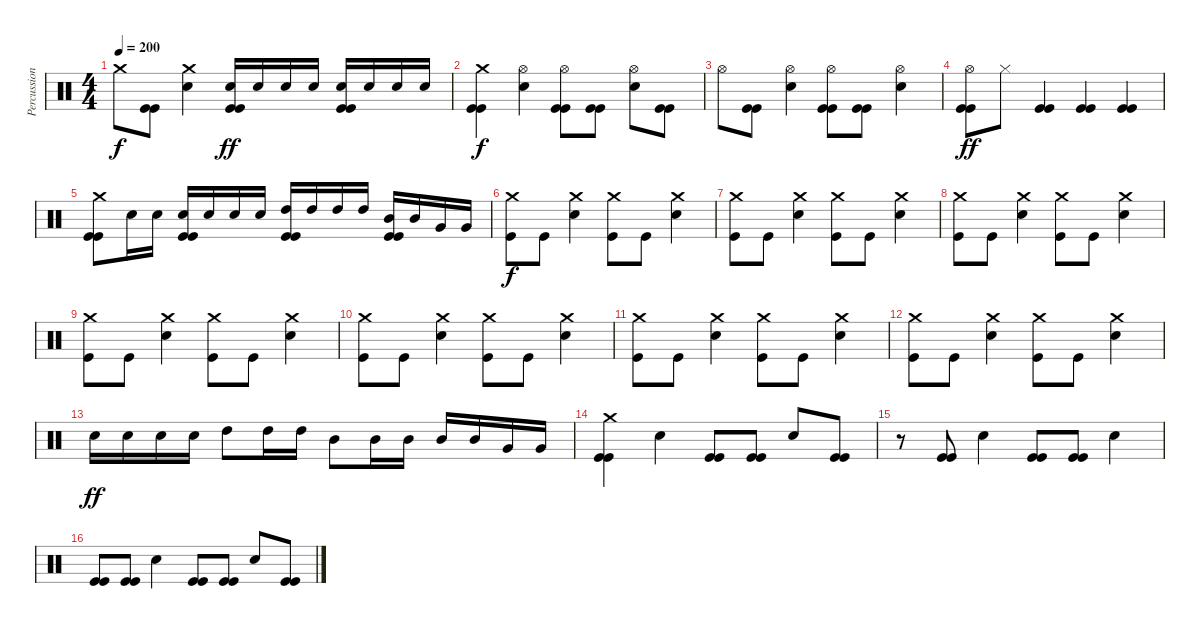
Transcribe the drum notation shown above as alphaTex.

\track ("Percussion" "Percussion") {instrument percussion}
\staff {score}
\articulation defaults
\ts (4 4)
\tempo 200
\clef neutral
\ks c "Crash medium (hit)".8{dy f}
("Kick (hit)" "Kick (hit)").8 ("Crash medium (hit)" "Snare (hit) 2").4 ("Snare (hit) 2" "Kick (hit)" "Kick (hit)").16{dy ff} "Snare (hit) 2".16 "Snare (hit) 2".16 "Snare (hit) 2".16 ("Snare (hit) 2" "Kick (hit)" "Kick (hit)").16 "Snare (hit) 2".16 "Snare (hit) 2".16 "Snare (hit) 2".16 |
("Crash medium (hit)" "Kick (hit)" "Kick (hit)").4{dy f} ("Hi-Hat (open)" "Snare (hit) 2").4 ("Hi-Hat (open)" "Kick (hit)" "Kick (hit)").8 ("Kick (hit)" "Kick (hit)").8 ("Hi-Hat (open)" "Snare (hit) 2").8 ("Kick (hit)" "Kick (hit)").8 |
"Hi-Hat (open)".8 ("Kick (hit)" "Kick (hit)").8 ("Hi-Hat (open)" "Snare (hit) 2").4 ("Hi-Hat (open)" "Kick (hit)" "Kick (hit)").8 ("Kick (hit)" "Kick (hit)").8 ("Hi-Hat (open)" "Snare (hit) 2").4 |
("Hi-Hat (open)" "Kick (hit)" "Kick (hit)").8{dy ff} "Hi-Hat (closed)".8 ("Kick (hit)" "Kick (hit)").4 ("Kick (hit)" "Kick (hit)").4 ("Kick (hit)" "Kick (hit)").4 |
("Crash medium (hit)" "Kick (hit)" "Kick (hit)").8 "Snare (hit) 2".16 "Snare (hit) 2".16 ("Snare (hit) 2" "Kick (hit)" "Kick (hit)").16 "Snare (hit) 2".16 "Snare (hit) 2".16 "Snare (hit) 2".16 ("High Tom (hit)" "Kick (hit)" "Kick (hit)").16 "High Tom (hit)".16 "High Tom (hit)".16 "High Tom (hit)".16 ("Mid Tom (hit)" "Kick (hit)" "Kick (hit)").16 "Mid Tom (hit)".16 "Very Low Tom (hit)".16 "Very Low Tom (hit)".16 |
("Crash medium (hit)" "Kick (hit)").8{dy f} "Kick (hit)".8 ("Crash medium (hit)" "Snare (hit) 2").4 ("Crash medium (hit)" "Kick (hit)").8 "Kick (hit)".8 ("Crash medium (hit)" "Snare (hit) 2").4 |
("Crash medium (hit)" "Kick (hit)").8 "Kick (hit)".8 ("Crash medium (hit)" "Snare (hit) 2").4 ("Crash medium (hit)" "Kick (hit)").8 "Kick (hit)".8 ("Crash medium (hit)" "Snare (hit) 2").4 |
("Crash medium (hit)" "Kick (hit)").8 "Kick (hit)".8 ("Crash medium (hit)" "Snare (hit) 2").4 ("Crash medium (hit)" "Kick (hit)").8 "Kick (hit)".8 ("Crash medium (hit)" "Snare (hit) 2").4 |
("Crash medium (hit)" "Kick (hit)").8 "Kick (hit)".8 ("Crash medium (hit)" "Snare (hit) 2").4 ("Crash medium (hit)" "Kick (hit)").8 "Kick (hit)".8 ("Crash medium (hit)" "Snare (hit) 2").4 |
("Crash medium (hit)" "Kick (hit)").8 "Kick (hit)".8 ("Crash medium (hit)" "Snare (hit) 2").4 ("Crash medium (hit)" "Kick (hit)").8 "Kick (hit)".8 ("Crash medium (hit)" "Snare (hit) 2").4 |
("Crash medium (hit)" "Kick (hit)").8 "Kick (hit)".8 ("Crash medium (hit)" "Snare (hit) 2").4 ("Crash medium (hit)" "Kick (hit)").8 "Kick (hit)".8 ("Crash medium (hit)" "Snare (hit) 2").4 |
("Crash medium (hit)" "Kick (hit)").8 "Kick (hit)".8 ("Crash medium (hit)" "Snare (hit) 2").4 ("Crash medium (hit)" "Kick (hit)").8 "Kick (hit)".8 ("Crash medium (hit)" "Snare (hit) 2").4 |
"Snare (hit) 2".16{dy ff} "Snare (hit) 2".16 "Snare (hit) 2".16 "Snare (hit) 2".16 "High Tom (hit)".8 "High Tom (hit)".16 "High Tom (hit)".16 "Mid Tom (hit)".8 "Mid Tom (hit)".16 "Mid Tom (hit)".16 "Mid Tom (hit)".16 "Mid Tom (hit)".16 "Very Low Tom (hit)".16 "Very Low Tom (hit)".16 |
("Crash medium (hit)" "Kick (hit)" "Kick (hit)").4 "Snare (hit) 2".4 ("Kick (hit)" "Kick (hit)").8 ("Kick (hit)" "Kick (hit)").8 "Snare (hit) 2".8 ("Kick (hit)" "Kick (hit)").8 |
r.8 ("Kick (hit)" "Kick (hit)").8 "Snare (hit) 2".4 ("Kick (hit)" "Kick (hit)").8 ("Kick (hit)" "Kick (hit)").8 "Snare (hit) 2".4 |
("Kick (hit)" "Kick (hit)").8 ("Kick (hit)" "Kick (hit)").8 "Snare (hit) 2".4 ("Kick (hit)" "Kick (hit)").8 ("Kick (hit)" "Kick (hit)").8 "Snare (hit) 2".8 ("Kick (hit)" "Kick (hit)").8
